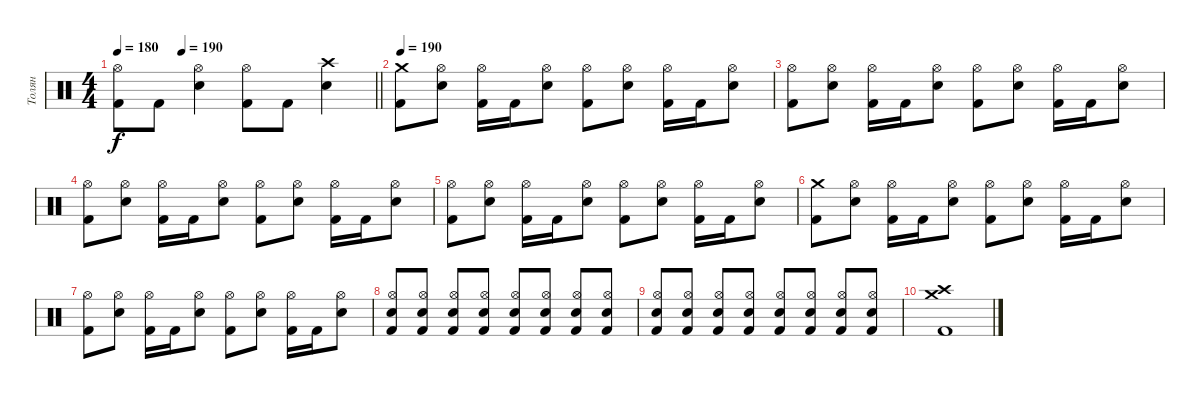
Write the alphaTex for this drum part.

\track ("Толян" "Толян") {instrument percussion}
\staff {score}
\articulation defaults
\ts (4 4)
\tempo 180
\tempo (190 0.25)
\clef neutral
\barLineRight lightlight
\ks c
("Kick (hit) 2" "Hi-Hat (open)").8{dy f} "Kick (hit) 2".8 ("Electric Snare (hit)" "Hi-Hat (open)").4 ("Kick (hit) 2" "Hi-Hat (open)").8 "Kick (hit) 2".8 ("Electric Snare (hit)" "Crash high (hit)").4 |
\tempo 190
("Kick (hit) 2" "Crash medium (hit)").8 ("Electric Snare (hit)" "Hi-Hat (open)").8 ("Kick (hit) 2" "Hi-Hat (open)").16 "Kick (hit) 2".16 ("Electric Snare (hit)" "Hi-Hat (open)").8 ("Kick (hit) 2" "Hi-Hat (open)").8 ("Electric Snare (hit)" "Hi-Hat (open)").8 ("Kick (hit) 2" "Hi-Hat (open)").16 "Kick (hit) 2".16 ("Electric Snare (hit)" "Hi-Hat (open)").8 |
("Kick (hit) 2" "Hi-Hat (open)").8 ("Electric Snare (hit)" "Hi-Hat (open)").8 ("Kick (hit) 2" "Hi-Hat (open)").16 "Kick (hit) 2".16 ("Electric Snare (hit)" "Hi-Hat (open)").8 ("Kick (hit) 2" "Hi-Hat (open)").8 ("Electric Snare (hit)" "Hi-Hat (open)").8 ("Kick (hit) 2" "Hi-Hat (open)").16 "Kick (hit) 2".16 ("Electric Snare (hit)" "Hi-Hat (open)").8 |
("Kick (hit) 2" "Hi-Hat (open)").8 ("Electric Snare (hit)" "Hi-Hat (open)").8 ("Kick (hit) 2" "Hi-Hat (open)").16 "Kick (hit) 2".16 ("Electric Snare (hit)" "Hi-Hat (open)").8 ("Kick (hit) 2" "Hi-Hat (open)").8 ("Electric Snare (hit)" "Hi-Hat (open)").8 ("Kick (hit) 2" "Hi-Hat (open)").16 "Kick (hit) 2".16 ("Electric Snare (hit)" "Hi-Hat (open)").8 |
("Kick (hit) 2" "Hi-Hat (open)").8 ("Electric Snare (hit)" "Hi-Hat (open)").8 ("Kick (hit) 2" "Hi-Hat (open)").16 "Kick (hit) 2".16 ("Electric Snare (hit)" "Hi-Hat (open)").8 ("Kick (hit) 2" "Hi-Hat (open)").8 ("Electric Snare (hit)" "Hi-Hat (open)").8 ("Kick (hit) 2" "Hi-Hat (open)").16 "Kick (hit) 2".16 ("Electric Snare (hit)" "Hi-Hat (open)").8 |
("Kick (hit) 2" "Crash medium (hit)").8 ("Electric Snare (hit)" "Hi-Hat (open)").8 ("Kick (hit) 2" "Hi-Hat (open)").16 "Kick (hit) 2".16 ("Electric Snare (hit)" "Hi-Hat (open)").8 ("Kick (hit) 2" "Hi-Hat (open)").8 ("Electric Snare (hit)" "Hi-Hat (open)").8 ("Kick (hit) 2" "Hi-Hat (open)").16 "Kick (hit) 2".16 ("Electric Snare (hit)" "Hi-Hat (open)").8 |
("Kick (hit) 2" "Hi-Hat (open)").8 ("Electric Snare (hit)" "Hi-Hat (open)").8 ("Kick (hit) 2" "Hi-Hat (open)").16 "Kick (hit) 2".16 ("Electric Snare (hit)" "Hi-Hat (open)").8 ("Kick (hit) 2" "Hi-Hat (open)").8 ("Electric Snare (hit)" "Hi-Hat (open)").8 ("Kick (hit) 2" "Hi-Hat (open)").16 "Kick (hit) 2".16 ("Electric Snare (hit)" "Hi-Hat (open)").8 |
("Kick (hit) 2" "Electric Snare (hit)" "Hi-Hat (open)").8 ("Kick (hit) 2" "Electric Snare (hit)" "Hi-Hat (open)").8 ("Kick (hit) 2" "Electric Snare (hit)" "Hi-Hat (open)").8 ("Kick (hit) 2" "Electric Snare (hit)" "Hi-Hat (open)").8 ("Kick (hit) 2" "Electric Snare (hit)" "Hi-Hat (open)").8 ("Kick (hit) 2" "Electric Snare (hit)" "Hi-Hat (open)").8 ("Kick (hit) 2" "Electric Snare (hit)" "Hi-Hat (open)").8 ("Kick (hit) 2" "Electric Snare (hit)" "Hi-Hat (open)").8 |
("Kick (hit) 2" "Electric Snare (hit)" "Hi-Hat (open)").8 ("Kick (hit) 2" "Electric Snare (hit)" "Hi-Hat (open)").8 ("Kick (hit) 2" "Electric Snare (hit)" "Hi-Hat (open)").8 ("Kick (hit) 2" "Electric Snare (hit)" "Hi-Hat (open)").8 ("Kick (hit) 2" "Electric Snare (hit)" "Hi-Hat (open)").8 ("Kick (hit) 2" "Electric Snare (hit)" "Hi-Hat (open)").8 ("Kick (hit) 2" "Electric Snare (hit)" "Hi-Hat (open)").8 ("Kick (hit) 2" "Electric Snare (hit)" "Hi-Hat (open)").8 |
("Crash high (hit)" "Kick (hit) 2" "Crash medium (hit)").1
